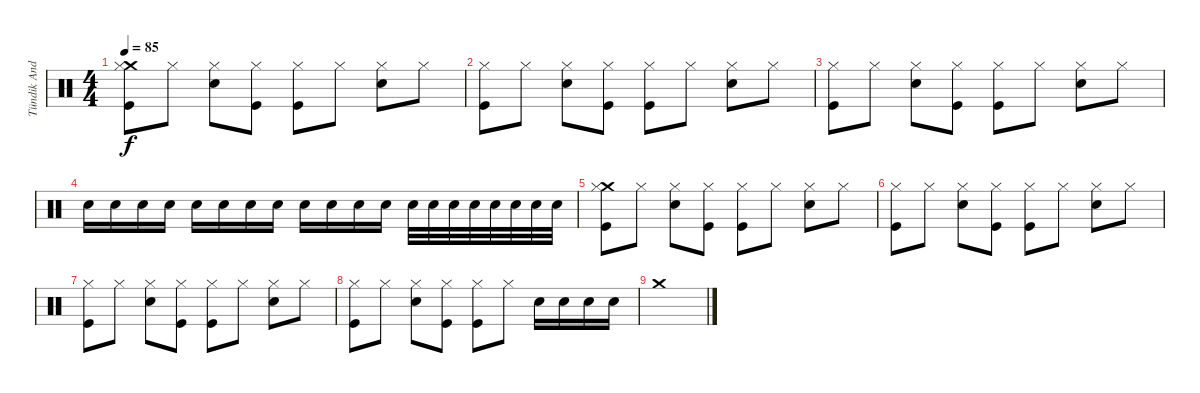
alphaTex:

\track ("Tündik András - Dob" "Tündik And") {instrument percussion}
\staff {score}
\articulation defaults
\ts (4 4)
\tempo 85
\clef neutral
\ks c
("Crash medium (hit)" "Hi-Hat (closed)" "Kick (hit)").8{dy f} "Hi-Hat (closed)".8 ("Snare (hit) 2" "Hi-Hat (closed)").8 ("Hi-Hat (closed)" "Kick (hit)").8 ("Hi-Hat (closed)" "Kick (hit)").8 "Hi-Hat (closed)".8 ("Snare (hit) 2" "Hi-Hat (closed)").8 "Hi-Hat (closed)".8 |
("Hi-Hat (closed)" "Kick (hit)").8 "Hi-Hat (closed)".8 ("Snare (hit) 2" "Hi-Hat (closed)").8 ("Hi-Hat (closed)" "Kick (hit)").8 ("Hi-Hat (closed)" "Kick (hit)").8 "Hi-Hat (closed)".8 ("Snare (hit) 2" "Hi-Hat (closed)").8 "Hi-Hat (closed)".8 |
("Hi-Hat (closed)" "Kick (hit)").8 "Hi-Hat (closed)".8 ("Snare (hit) 2" "Hi-Hat (closed)").8 ("Hi-Hat (closed)" "Kick (hit)").8 ("Hi-Hat (closed)" "Kick (hit)").8 "Hi-Hat (closed)".8 ("Snare (hit) 2" "Hi-Hat (closed)").8 "Hi-Hat (closed)".8 |
"Snare (hit) 2".16 "Snare (hit) 2".16 "Electric Snare (hit)".16 "Snare (hit) 2".16 "Electric Snare (hit)".16 "Snare (hit) 2".16 "Snare (hit) 2".16 "Snare (hit) 2".16 "Electric Snare (hit)".16 "Snare (hit) 2".16 "Electric Snare (hit)".16 "Snare (hit) 2".16 "Snare (hit) 2".32 "Snare (hit) 2".32 "Snare (hit) 2".32 "Snare (hit) 2".32 "Snare (hit) 2".32 "Snare (hit) 2".32 "Snare (hit) 2".32 "Snare (hit) 2".32 |
("Crash medium (hit)" "Hi-Hat (closed)" "Kick (hit)").8 "Hi-Hat (closed)".8 ("Snare (hit) 2" "Hi-Hat (closed)").8 ("Hi-Hat (closed)" "Kick (hit)").8 ("Hi-Hat (closed)" "Kick (hit)").8 "Hi-Hat (closed)".8 ("Snare (hit) 2" "Hi-Hat (closed)").8 "Hi-Hat (closed)".8 |
("Hi-Hat (closed)" "Kick (hit)").8 "Hi-Hat (closed)".8 ("Snare (hit) 2" "Hi-Hat (closed)").8 ("Hi-Hat (closed)" "Kick (hit)").8 ("Hi-Hat (closed)" "Kick (hit)").8 "Hi-Hat (closed)".8 ("Snare (hit) 2" "Hi-Hat (closed)").8 "Hi-Hat (closed)".8 |
("Hi-Hat (closed)" "Kick (hit)").8 "Hi-Hat (closed)".8 ("Snare (hit) 2" "Hi-Hat (closed)").8 ("Hi-Hat (closed)" "Kick (hit)").8 ("Hi-Hat (closed)" "Kick (hit)").8 "Hi-Hat (closed)".8 ("Snare (hit) 2" "Hi-Hat (closed)").8 "Hi-Hat (closed)".8 |
("Hi-Hat (closed)" "Kick (hit)").8 "Hi-Hat (closed)".8 ("Snare (hit) 2" "Hi-Hat (closed)").8 ("Hi-Hat (closed)" "Kick (hit)").8 ("Hi-Hat (closed)" "Kick (hit)").8 "Hi-Hat (closed)".8 "Snare (hit) 2".16 "Snare (hit) 2".16 "Snare (hit) 2".16 "Snare (hit) 2".16 |
"Crash medium (hit)".1
